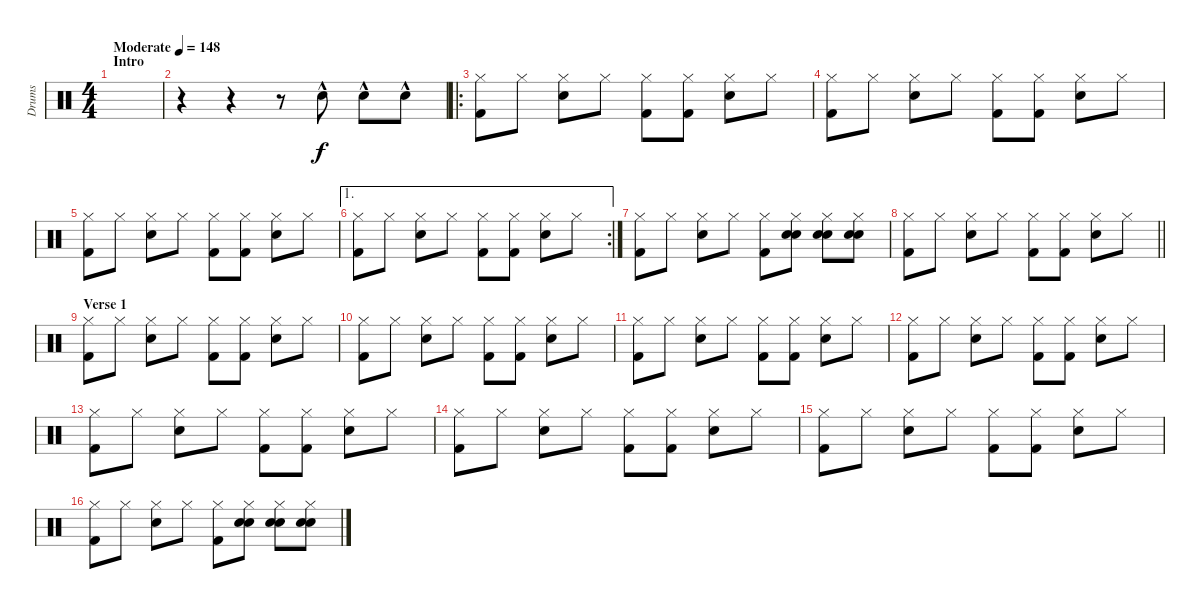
\track ("Drums " "Drums ") {instrument percussion}
\staff {score}
\articulation defaults
\ts (4 4)
\section ("" "Intro")
\tempo (148 "Moderate")
\clef neutral
\ks c
|
r.4 r.4 r.8 "Hand Clap (hit)"{hac}.8 "Hand Clap (hit)"{hac}.8 "Hand Clap (hit)"{hac}.8 |
\ro
("Hi-Hat (closed)" "Kick (hit) 2").8{dy f} "Hi-Hat (closed)".8 ("Hi-Hat (closed)" "Snare (hit) 2").8 "Hi-Hat (closed)".8 ("Hi-Hat (closed)" "Kick (hit) 2").8 ("Hi-Hat (closed)" "Kick (hit) 2").8 ("Hi-Hat (closed)" "Snare (hit) 2").8 "Hi-Hat (closed)".8 |
("Hi-Hat (closed)" "Kick (hit) 2").8 "Hi-Hat (closed)".8 ("Hi-Hat (closed)" "Snare (hit) 2").8 "Hi-Hat (closed)".8 ("Hi-Hat (closed)" "Kick (hit) 2").8 ("Hi-Hat (closed)" "Kick (hit) 2").8 ("Hi-Hat (closed)" "Snare (hit) 2").8 "Hi-Hat (closed)".8 |
("Hi-Hat (closed)" "Kick (hit) 2").8 "Hi-Hat (closed)".8 ("Hi-Hat (closed)" "Snare (hit) 2").8 "Hi-Hat (closed)".8 ("Hi-Hat (closed)" "Kick (hit) 2").8 ("Hi-Hat (closed)" "Kick (hit) 2").8 ("Hi-Hat (closed)" "Snare (hit) 2").8 "Hi-Hat (closed)".8 |
\ae 1
\rc 2
("Hi-Hat (closed)" "Kick (hit) 2").8 "Hi-Hat (closed)".8 ("Hi-Hat (closed)" "Snare (hit) 2").8 "Hi-Hat (closed)".8 ("Hi-Hat (closed)" "Kick (hit) 2").8 ("Hi-Hat (closed)" "Kick (hit) 2").8 ("Hi-Hat (closed)" "Snare (hit) 2").8 "Hi-Hat (closed)".8 |
("Hi-Hat (closed)" "Kick (hit) 2").8 "Hi-Hat (closed)".8 ("Hi-Hat (closed)" "Snare (hit) 2").8 "Hi-Hat (closed)".8 ("Hi-Hat (closed)" "Kick (hit) 2").8 ("Hand Clap (hit)" "Hi-Hat (closed)" "Snare (hit) 2").8 ("Hand Clap (hit)" "Hi-Hat (closed)" "Snare (hit) 2").8 ("Hand Clap (hit)" "Hi-Hat (closed)" "Snare (hit) 2").8 |
\barLineRight lightlight
("Hi-Hat (closed)" "Kick (hit) 2").8 "Hi-Hat (closed)".8 ("Hi-Hat (closed)" "Snare (hit) 2").8 "Hi-Hat (closed)".8 ("Hi-Hat (closed)" "Kick (hit) 2").8 ("Hi-Hat (closed)" "Kick (hit) 2").8 ("Hi-Hat (closed)" "Snare (hit) 2").8 "Hi-Hat (closed)".8 |
\section ("" "Verse 1")
("Hi-Hat (closed)" "Kick (hit) 2").8 "Hi-Hat (closed)".8 ("Hi-Hat (closed)" "Snare (hit) 2").8 "Hi-Hat (closed)".8 ("Hi-Hat (closed)" "Kick (hit) 2").8 ("Hi-Hat (closed)" "Kick (hit) 2").8 ("Hi-Hat (closed)" "Snare (hit) 2").8 "Hi-Hat (closed)".8 |
("Hi-Hat (closed)" "Kick (hit) 2").8 "Hi-Hat (closed)".8 ("Hi-Hat (closed)" "Snare (hit) 2").8 "Hi-Hat (closed)".8 ("Hi-Hat (closed)" "Kick (hit) 2").8 ("Hi-Hat (closed)" "Kick (hit) 2").8 ("Hi-Hat (closed)" "Snare (hit) 2").8 "Hi-Hat (closed)".8 |
("Hi-Hat (closed)" "Kick (hit) 2").8 "Hi-Hat (closed)".8 ("Hi-Hat (closed)" "Snare (hit) 2").8 "Hi-Hat (closed)".8 ("Hi-Hat (closed)" "Kick (hit) 2").8 ("Hi-Hat (closed)" "Kick (hit) 2").8 ("Hi-Hat (closed)" "Snare (hit) 2").8 "Hi-Hat (closed)".8 |
("Hi-Hat (closed)" "Kick (hit) 2").8 "Hi-Hat (closed)".8 ("Hi-Hat (closed)" "Snare (hit) 2").8 "Hi-Hat (closed)".8 ("Hi-Hat (closed)" "Kick (hit) 2").8 ("Hi-Hat (closed)" "Kick (hit) 2").8 ("Hi-Hat (closed)" "Snare (hit) 2").8 "Hi-Hat (closed)".8 |
("Hi-Hat (closed)" "Kick (hit) 2").8 "Hi-Hat (closed)".8 ("Hi-Hat (closed)" "Snare (hit) 2").8 "Hi-Hat (closed)".8 ("Hi-Hat (closed)" "Kick (hit) 2").8 ("Hi-Hat (closed)" "Kick (hit) 2").8 ("Hi-Hat (closed)" "Snare (hit) 2").8 "Hi-Hat (closed)".8 |
("Hi-Hat (closed)" "Kick (hit) 2").8 "Hi-Hat (closed)".8 ("Hi-Hat (closed)" "Snare (hit) 2").8 "Hi-Hat (closed)".8 ("Hi-Hat (closed)" "Kick (hit) 2").8 ("Hi-Hat (closed)" "Kick (hit) 2").8 ("Hi-Hat (closed)" "Snare (hit) 2").8 "Hi-Hat (closed)".8 |
("Hi-Hat (closed)" "Kick (hit) 2").8 "Hi-Hat (closed)".8 ("Hi-Hat (closed)" "Snare (hit) 2").8 "Hi-Hat (closed)".8 ("Hi-Hat (closed)" "Kick (hit) 2").8 ("Hi-Hat (closed)" "Kick (hit) 2").8 ("Hi-Hat (closed)" "Snare (hit) 2").8 "Hi-Hat (closed)".8 |
("Hi-Hat (closed)" "Kick (hit) 2").8 "Hi-Hat (closed)".8 ("Hi-Hat (closed)" "Snare (hit) 2").8 "Hi-Hat (closed)".8 ("Hi-Hat (closed)" "Kick (hit) 2").8 ("Hand Clap (hit)" "Hi-Hat (closed)" "Snare (hit) 2").8 ("Hand Clap (hit)" "Hi-Hat (closed)" "Snare (hit) 2").8 ("Hand Clap (hit)" "Hi-Hat (closed)" "Snare (hit) 2").8
